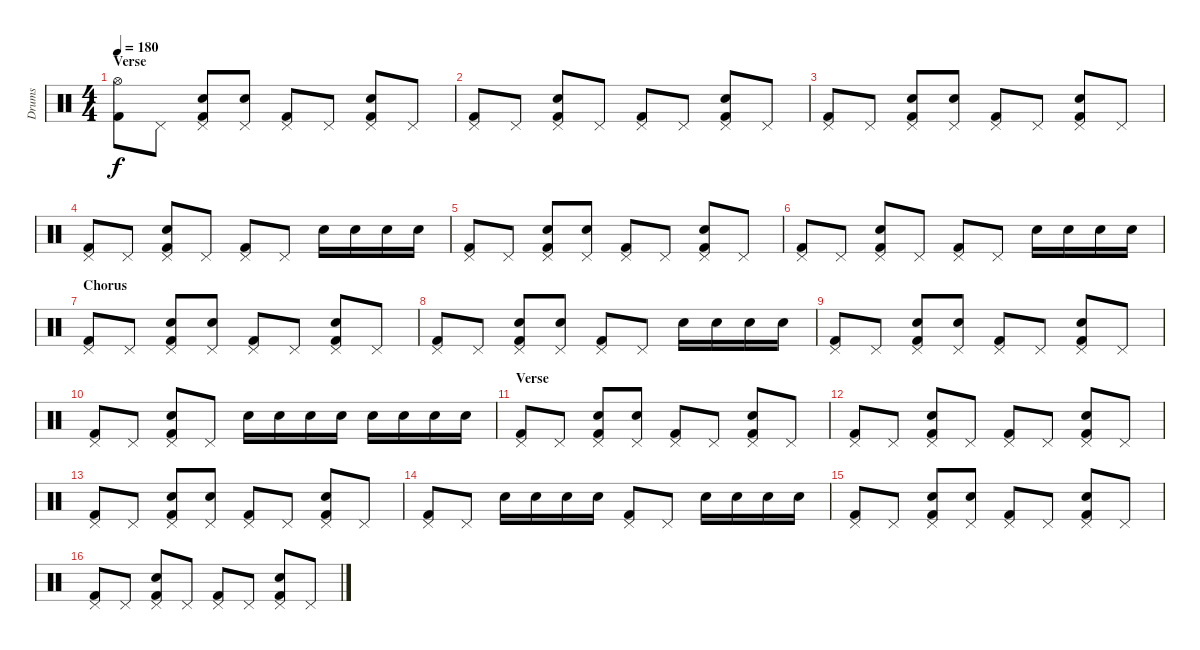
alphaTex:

\track ("Drums" "Drums") {instrument percussion}
\staff {score}
\articulation defaults
\ts (4 4)
\section ("" "Verse")
\tempo 180
\clef neutral
\ks c
("Hi-Hat (open)" "Kick (hit) 2").8{dy f} "Pedal Hi-Hat (hit)".8 ("Pedal Hi-Hat (hit)" "Kick (hit) 2" "Electric Snare (hit)").8 ("Pedal Hi-Hat (hit)" "Electric Snare (hit)").8 ("Pedal Hi-Hat (hit)" "Kick (hit) 2").8 "Pedal Hi-Hat (hit)".8 ("Pedal Hi-Hat (hit)" "Kick (hit) 2" "Electric Snare (hit)").8 "Pedal Hi-Hat (hit)".8 |
("Pedal Hi-Hat (hit)" "Kick (hit) 2").8 "Pedal Hi-Hat (hit)".8 ("Pedal Hi-Hat (hit)" "Kick (hit) 2" "Electric Snare (hit)").8 "Pedal Hi-Hat (hit)".8 ("Pedal Hi-Hat (hit)" "Kick (hit) 2").8 "Pedal Hi-Hat (hit)".8 ("Pedal Hi-Hat (hit)" "Kick (hit) 2" "Electric Snare (hit)").8 "Pedal Hi-Hat (hit)".8 |
("Pedal Hi-Hat (hit)" "Kick (hit) 2").8 "Pedal Hi-Hat (hit)".8 ("Pedal Hi-Hat (hit)" "Kick (hit) 2" "Electric Snare (hit)").8 ("Pedal Hi-Hat (hit)" "Electric Snare (hit)").8 ("Pedal Hi-Hat (hit)" "Kick (hit) 2").8 "Pedal Hi-Hat (hit)".8 ("Pedal Hi-Hat (hit)" "Kick (hit) 2" "Electric Snare (hit)").8 "Pedal Hi-Hat (hit)".8 |
("Pedal Hi-Hat (hit)" "Kick (hit) 2").8 "Pedal Hi-Hat (hit)".8 ("Pedal Hi-Hat (hit)" "Kick (hit) 2" "Electric Snare (hit)").8 "Pedal Hi-Hat (hit)".8 ("Pedal Hi-Hat (hit)" "Kick (hit) 2").8 "Pedal Hi-Hat (hit)".8 "Electric Snare (hit)".16 "Electric Snare (hit)".16 "Electric Snare (hit)".16 "Electric Snare (hit)".16 |
("Pedal Hi-Hat (hit)" "Kick (hit) 2").8 "Pedal Hi-Hat (hit)".8 ("Pedal Hi-Hat (hit)" "Kick (hit) 2" "Electric Snare (hit)").8 ("Pedal Hi-Hat (hit)" "Electric Snare (hit)").8 ("Pedal Hi-Hat (hit)" "Kick (hit) 2").8 "Pedal Hi-Hat (hit)".8 ("Pedal Hi-Hat (hit)" "Kick (hit) 2" "Electric Snare (hit)").8 "Pedal Hi-Hat (hit)".8 |
("Pedal Hi-Hat (hit)" "Kick (hit) 2").8 "Pedal Hi-Hat (hit)".8 ("Pedal Hi-Hat (hit)" "Kick (hit) 2" "Electric Snare (hit)").8 "Pedal Hi-Hat (hit)".8 ("Pedal Hi-Hat (hit)" "Kick (hit) 2").8 "Pedal Hi-Hat (hit)".8 "Electric Snare (hit)".16 "Electric Snare (hit)".16 "Electric Snare (hit)".16 "Electric Snare (hit)".16 |
\section ("" "Chorus")
("Pedal Hi-Hat (hit)" "Kick (hit) 2").8 "Pedal Hi-Hat (hit)".8 ("Pedal Hi-Hat (hit)" "Kick (hit) 2" "Electric Snare (hit)").8 ("Pedal Hi-Hat (hit)" "Electric Snare (hit)").8 ("Pedal Hi-Hat (hit)" "Kick (hit) 2").8 "Pedal Hi-Hat (hit)".8 ("Pedal Hi-Hat (hit)" "Kick (hit) 2" "Electric Snare (hit)").8 "Pedal Hi-Hat (hit)".8 |
("Pedal Hi-Hat (hit)" "Kick (hit) 2").8 "Pedal Hi-Hat (hit)".8 ("Pedal Hi-Hat (hit)" "Kick (hit) 2" "Electric Snare (hit)").8 ("Pedal Hi-Hat (hit)" "Electric Snare (hit)").8 ("Pedal Hi-Hat (hit)" "Kick (hit) 2").8 "Pedal Hi-Hat (hit)".8 "Electric Snare (hit)".16 "Electric Snare (hit)".16 "Electric Snare (hit)".16 "Electric Snare (hit)".16 |
("Pedal Hi-Hat (hit)" "Kick (hit) 2").8 "Pedal Hi-Hat (hit)".8 ("Pedal Hi-Hat (hit)" "Kick (hit) 2" "Electric Snare (hit)").8 ("Pedal Hi-Hat (hit)" "Electric Snare (hit)").8 ("Pedal Hi-Hat (hit)" "Kick (hit) 2").8 "Pedal Hi-Hat (hit)".8 ("Pedal Hi-Hat (hit)" "Kick (hit) 2" "Electric Snare (hit)").8 "Pedal Hi-Hat (hit)".8 |
("Pedal Hi-Hat (hit)" "Kick (hit) 2").8 "Pedal Hi-Hat (hit)".8 ("Pedal Hi-Hat (hit)" "Kick (hit) 2" "Electric Snare (hit)").8 "Pedal Hi-Hat (hit)".8 "Electric Snare (hit)".16 "Electric Snare (hit)".16 "Electric Snare (hit)".16 "Electric Snare (hit)".16 "Electric Snare (hit)".16 "Electric Snare (hit)".16 "Electric Snare (hit)".16 "Electric Snare (hit)".16 |
\section ("" "Verse")
("Pedal Hi-Hat (hit)" "Kick (hit) 2").8 "Pedal Hi-Hat (hit)".8 ("Pedal Hi-Hat (hit)" "Kick (hit) 2" "Electric Snare (hit)").8 ("Pedal Hi-Hat (hit)" "Electric Snare (hit)").8 ("Pedal Hi-Hat (hit)" "Kick (hit) 2").8 "Pedal Hi-Hat (hit)".8 ("Pedal Hi-Hat (hit)" "Kick (hit) 2" "Electric Snare (hit)").8 "Pedal Hi-Hat (hit)".8 |
("Pedal Hi-Hat (hit)" "Kick (hit) 2").8 "Pedal Hi-Hat (hit)".8 ("Pedal Hi-Hat (hit)" "Kick (hit) 2" "Electric Snare (hit)").8 "Pedal Hi-Hat (hit)".8 ("Pedal Hi-Hat (hit)" "Kick (hit) 2").8 "Pedal Hi-Hat (hit)".8 ("Pedal Hi-Hat (hit)" "Kick (hit) 2" "Electric Snare (hit)").8 "Pedal Hi-Hat (hit)".8 |
("Pedal Hi-Hat (hit)" "Kick (hit) 2").8 "Pedal Hi-Hat (hit)".8 ("Pedal Hi-Hat (hit)" "Kick (hit) 2" "Electric Snare (hit)").8 ("Pedal Hi-Hat (hit)" "Electric Snare (hit)").8 ("Pedal Hi-Hat (hit)" "Kick (hit) 2").8 "Pedal Hi-Hat (hit)".8 ("Pedal Hi-Hat (hit)" "Kick (hit) 2" "Electric Snare (hit)").8 "Pedal Hi-Hat (hit)".8 |
("Pedal Hi-Hat (hit)" "Kick (hit) 2").8 "Pedal Hi-Hat (hit)".8 "Electric Snare (hit)".16 "Electric Snare (hit)".16 "Electric Snare (hit)".16 "Electric Snare (hit)".16 ("Pedal Hi-Hat (hit)" "Kick (hit) 2").8 "Pedal Hi-Hat (hit)".8 "Electric Snare (hit)".16 "Electric Snare (hit)".16 "Electric Snare (hit)".16 "Electric Snare (hit)".16 |
("Pedal Hi-Hat (hit)" "Kick (hit) 2").8 "Pedal Hi-Hat (hit)".8 ("Pedal Hi-Hat (hit)" "Kick (hit) 2" "Electric Snare (hit)").8 ("Pedal Hi-Hat (hit)" "Electric Snare (hit)").8 ("Pedal Hi-Hat (hit)" "Kick (hit) 2").8 "Pedal Hi-Hat (hit)".8 ("Pedal Hi-Hat (hit)" "Kick (hit) 2" "Electric Snare (hit)").8 "Pedal Hi-Hat (hit)".8 |
("Pedal Hi-Hat (hit)" "Kick (hit) 2").8 "Pedal Hi-Hat (hit)".8 ("Pedal Hi-Hat (hit)" "Kick (hit) 2" "Electric Snare (hit)").8 "Pedal Hi-Hat (hit)".8 ("Pedal Hi-Hat (hit)" "Kick (hit) 2").8 "Pedal Hi-Hat (hit)".8 ("Pedal Hi-Hat (hit)" "Kick (hit) 2" "Electric Snare (hit)").8 "Pedal Hi-Hat (hit)".8
